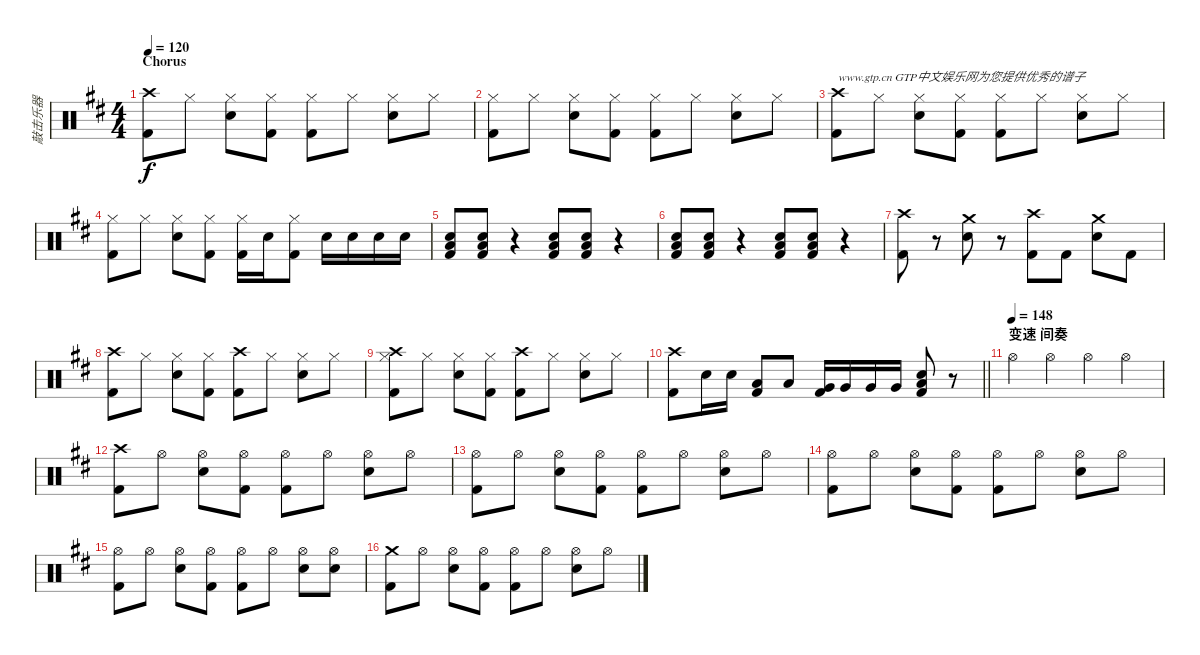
\track ("敲击乐器" "敲击乐器") {instrument percussion}
\staff {score}
\articulation defaults
\ts (4 4)
\section ("" "Chorus")
\tempo 120
\clef neutral
\ks d
("Crash high (hit)" "Kick (hit) 2").8{dy f} "Hi-Hat (closed)".8 ("Hi-Hat (closed)" "Electric Snare (hit)").8 ("Hi-Hat (closed)" "Kick (hit) 2").8 ("Hi-Hat (closed)" "Kick (hit) 2").8 "Hi-Hat (closed)".8 ("Hi-Hat (closed)" "Electric Snare (hit)").8 "Hi-Hat (closed)".8 |
("Hi-Hat (closed)" "Kick (hit) 2").8 "Hi-Hat (closed)".8 ("Hi-Hat (closed)" "Electric Snare (hit)").8 ("Hi-Hat (closed)" "Kick (hit) 2").8 ("Hi-Hat (closed)" "Kick (hit) 2").8 "Hi-Hat (closed)".8 ("Hi-Hat (closed)" "Electric Snare (hit)").8 "Hi-Hat (closed)".8 |
("Crash high (hit)" "Kick (hit) 2").8{txt "www.gtp.cn GTP中文娱乐网为您提供优秀的谱子"} "Hi-Hat (closed)".8 ("Hi-Hat (closed)" "Electric Snare (hit)").8 ("Hi-Hat (closed)" "Kick (hit) 2").8 ("Hi-Hat (closed)" "Kick (hit) 2").8 "Hi-Hat (closed)".8 ("Hi-Hat (closed)" "Electric Snare (hit)").8 "Hi-Hat (closed)".8 |
("Hi-Hat (closed)" "Kick (hit) 2").8 "Hi-Hat (closed)".8 ("Hi-Hat (closed)" "Electric Snare (hit)").8 ("Hi-Hat (closed)" "Kick (hit) 2").8 ("Hi-Hat (closed)" "Kick (hit) 2").16 "Electric Snare (hit)".16 ("Hi-Hat (closed)" "Kick (hit) 2").8 "Electric Snare (hit)".16 "Electric Snare (hit)".16 "Electric Snare (hit)".16 "Electric Snare (hit)".16 |
("Low Floor Tom (hit)" "Electric Snare (hit)" "Kick (hit) 2").8 ("Low Floor Tom (hit)" "Electric Snare (hit)" "Kick (hit) 2").8 r.4 ("Low Floor Tom (hit)" "Electric Snare (hit)" "Kick (hit) 2").8 ("Low Floor Tom (hit)" "Electric Snare (hit)" "Kick (hit) 2").8 r.4 |
("Low Floor Tom (hit)" "Electric Snare (hit)" "Kick (hit) 2").8 ("Low Floor Tom (hit)" "Electric Snare (hit)" "Kick (hit) 2").8 r.4 ("Low Floor Tom (hit)" "Electric Snare (hit)" "Kick (hit) 2").8 ("Low Floor Tom (hit)" "Electric Snare (hit)" "Kick (hit) 2").8 r.4 |
("Crash high (hit)" "Kick (hit) 2").8 r.8 ("Crash medium (hit)" "Electric Snare (hit)").8 r.8 ("Crash high (hit)" "Kick (hit) 2").8 "Kick (hit) 2".8 ("Crash medium (hit)" "Electric Snare (hit)").8 "Kick (hit) 2".8 |
("Crash high (hit)" "Kick (hit) 2").8 "Hi-Hat (closed)".8 ("Hi-Hat (closed)" "Electric Snare (hit)").8 ("Hi-Hat (closed)" "Kick (hit) 2").8 ("Crash high (hit)" "Kick (hit) 2").8 "Hi-Hat (closed)".8 ("Hi-Hat (closed)" "Electric Snare (hit)").8 "Hi-Hat (closed)".8 |
("Hi-Hat (closed)" "Crash high (hit)" "Kick (hit) 2").8 "Hi-Hat (closed)".8 ("Hi-Hat (closed)" "Electric Snare (hit)").8 ("Hi-Hat (closed)" "Kick (hit) 2").8 ("Crash high (hit)" "Kick (hit) 2").8 "Hi-Hat (closed)".8 ("Hi-Hat (closed)" "Electric Snare (hit)").8 "Hi-Hat (closed)".8 |
\barLineRight lightlight
("Crash high (hit)" "Kick (hit) 2").8 "Electric Snare (hit)".16 "Electric Snare (hit)".16 ("Low Tom (hit)" "Kick (hit) 2").8 "Low Tom (hit)".8 ("Very Low Tom (hit)" "Kick (hit) 2").16 "Very Low Tom (hit)".16 "Very Low Tom (hit)".16 "Very Low Tom (hit)".16 ("Electric Snare (hit)" "Low Floor Tom (hit)" "Kick (hit) 2").8 r.8 |
\section ("" "变速 间奏")
\tempo (148)
"Hi-Hat (open)".4 "Hi-Hat (open)".4 "Hi-Hat (open)".4 "Hi-Hat (open)".4 |
("Crash high (hit)" "Kick (hit) 2").8 "Hi-Hat (open)".8 ("Hi-Hat (open)" "Electric Snare (hit)").8 ("Hi-Hat (open)" "Kick (hit) 2").8 ("Hi-Hat (open)" "Kick (hit) 2").8 "Hi-Hat (open)".8 ("Hi-Hat (open)" "Electric Snare (hit)").8 "Hi-Hat (open)".8 |
("Hi-Hat (open)" "Kick (hit) 2").8 "Hi-Hat (open)".8 ("Hi-Hat (open)" "Electric Snare (hit)").8 ("Hi-Hat (open)" "Kick (hit) 2").8 ("Hi-Hat (open)" "Kick (hit) 2").8 "Hi-Hat (open)".8 ("Hi-Hat (open)" "Electric Snare (hit)").8 "Hi-Hat (open)".8 |
("Hi-Hat (open)" "Kick (hit) 2").8 "Hi-Hat (open)".8 ("Hi-Hat (open)" "Electric Snare (hit)").8 ("Hi-Hat (open)" "Kick (hit) 2").8 ("Hi-Hat (open)" "Kick (hit) 2").8 "Hi-Hat (open)".8 ("Hi-Hat (open)" "Electric Snare (hit)").8 "Hi-Hat (open)".8 |
("Hi-Hat (open)" "Kick (hit) 2").8 "Hi-Hat (open)".8 ("Hi-Hat (open)" "Electric Snare (hit)").8 ("Hi-Hat (open)" "Kick (hit) 2").8 ("Hi-Hat (open)" "Kick (hit) 2").8 "Hi-Hat (open)".8 ("Hi-Hat (open)" "Electric Snare (hit)").8 ("Hi-Hat (open)" "Electric Snare (hit)").8 |
("Crash medium (hit)" "Kick (hit) 2").8 "Hi-Hat (open)".8 ("Hi-Hat (open)" "Electric Snare (hit)").8 ("Hi-Hat (open)" "Kick (hit) 2").8 ("Hi-Hat (open)" "Kick (hit) 2").8 "Hi-Hat (open)".8 ("Hi-Hat (open)" "Electric Snare (hit)").8 "Hi-Hat (open)".8
